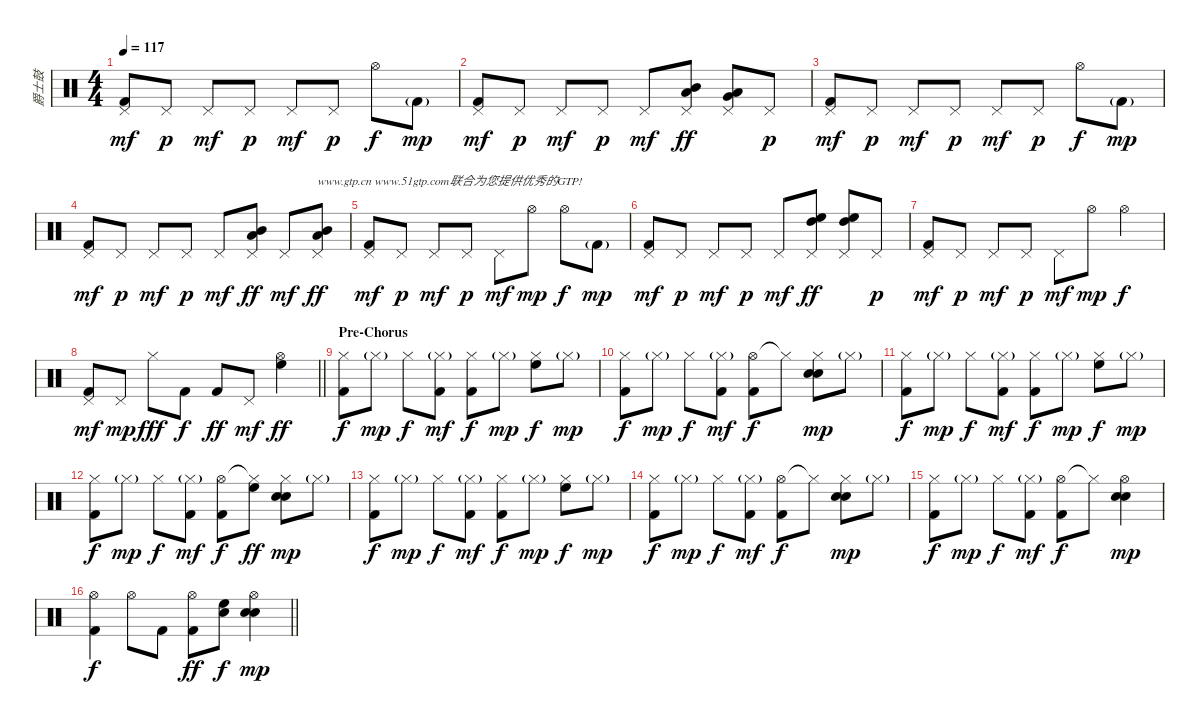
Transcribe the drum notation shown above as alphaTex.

\track ("爵士鼓" "爵士鼓") {instrument percussion}
\staff {score}
\articulation defaults
\ts (4 4)
\tempo 117
\clef neutral
\ks c
("Pedal Hi-Hat (hit)" "Kick (hit) 2").8{dy mf} "Pedal Hi-Hat (hit)".8{dy p} "Pedal Hi-Hat (hit)".8{dy mf} "Pedal Hi-Hat (hit)".8{dy p} "Pedal Hi-Hat (hit)".8{dy mf} "Pedal Hi-Hat (hit)".8{dy p} "Hi-Hat (open)".8{dy f} "Kick (hit) 2"{g}.8{dy mp} |
("Pedal Hi-Hat (hit)" "Kick (hit) 2").8{dy mf} "Pedal Hi-Hat (hit)".8{dy p} "Pedal Hi-Hat (hit)".8{dy mf} "Pedal Hi-Hat (hit)".8{dy p} "Pedal Hi-Hat (hit)".8{dy mf} ("Pedal Hi-Hat (hit)" "Mid Tom (hit)" "Low Tom (hit)").8{dy ff} ("Pedal Hi-Hat (hit)" "Low Tom (hit)" "Very Low Tom (hit)").8 "Pedal Hi-Hat (hit)".8{dy p} |
("Pedal Hi-Hat (hit)" "Kick (hit) 2").8{dy mf} "Pedal Hi-Hat (hit)".8{dy p} "Pedal Hi-Hat (hit)".8{dy mf} "Pedal Hi-Hat (hit)".8{dy p} "Pedal Hi-Hat (hit)".8{dy mf} "Pedal Hi-Hat (hit)".8{dy p} "Hi-Hat (open)".8{dy f} "Kick (hit) 2"{g}.8{dy mp} |
("Pedal Hi-Hat (hit)" "Kick (hit) 2").8{dy mf} "Pedal Hi-Hat (hit)".8{dy p} "Pedal Hi-Hat (hit)".8{dy mf} "Pedal Hi-Hat (hit)".8{dy p} "Pedal Hi-Hat (hit)".8{dy mf} ("Pedal Hi-Hat (hit)" "Mid Tom (hit)" "Low Tom (hit)").8{dy ff} "Pedal Hi-Hat (hit)".8{dy mf} ("Pedal Hi-Hat (hit)" "Mid Tom (hit)" "Low Tom (hit)").8{txt "www.gtp.cn www.51gtp.com联合为您提供优秀的GTP!" dy ff} |
("Pedal Hi-Hat (hit)" "Kick (hit) 2").8{dy mf} "Pedal Hi-Hat (hit)".8{dy p} "Pedal Hi-Hat (hit)".8{dy mf} "Pedal Hi-Hat (hit)".8{dy p} "Pedal Hi-Hat (hit)".8{dy mf} "Hi-Hat (open)".8{dy mp} "Hi-Hat (open)".8{dy f} "Kick (hit) 2"{g}.8{dy mp} |
("Pedal Hi-Hat (hit)" "Kick (hit) 2").8{dy mf} "Pedal Hi-Hat (hit)".8{dy p} "Pedal Hi-Hat (hit)".8{dy mf} "Pedal Hi-Hat (hit)".8{dy p} "Pedal Hi-Hat (hit)".8{dy mf} ("Pedal Hi-Hat (hit)" "High Tom (hit)" "High Floor Tom (hit)").8{dy ff} ("Pedal Hi-Hat (hit)" "High Tom (hit)" "High Floor Tom (hit)").8 "Pedal Hi-Hat (hit)".8{dy p} |
("Pedal Hi-Hat (hit)" "Kick (hit) 2").8{dy mf} "Pedal Hi-Hat (hit)".8{dy p} "Pedal Hi-Hat (hit)".8{dy mf} "Pedal Hi-Hat (hit)".8{dy p} "Pedal Hi-Hat (hit)".8{dy mf} "Hi-Hat (open)".8{dy mp} "Hi-Hat (open)".4{dy f} |
\barLineRight lightlight
("Pedal Hi-Hat (hit)" "Kick (hit) 2").8{dy mf} "Pedal Hi-Hat (hit)".8{dy mp} "Hi-Hat (closed)".8{dy fff} "Kick (hit) 2".8{dy f} "Kick (hit) 2".8{dy ff} "Pedal Hi-Hat (hit)".8{dy mf} ("Hi-Hat (open)" "High Floor Tom (hit)").4{dy ff} |
\section ("" "Pre-Chorus")
("Hi-Hat (closed)" "Kick (hit) 2").8{dy f} "Hi-Hat (closed)"{g}.8{dy mp} "Hi-Hat (closed)".8{dy f} ("Hi-Hat (closed)"{g} "Kick (hit) 2").8{dy mf} ("Hi-Hat (closed)" "Kick (hit) 2").8{dy f} "Hi-Hat (closed)"{g}.8{dy mp} ("Hi-Hat (closed)" "High Floor Tom (hit)").8{dy f} "Hi-Hat (closed)"{g}.8{dy mp} |
("Hi-Hat (closed)" "Kick (hit) 2").8{dy f} "Hi-Hat (closed)"{g}.8{dy mp} "Hi-Hat (closed)".8{dy f} ("Hi-Hat (closed)"{g} "Kick (hit) 2").8{dy mf} ("Hi-Hat (open)" "Kick (hit) 2").8{dy f} "Hi-Hat (closed)"{t}.8 ("Hi-Hat (closed)" "Electric Snare (hit)" "Snare (hit) 2").8{dy mp} "Hi-Hat (closed)"{g}.8 |
("Hi-Hat (closed)" "Kick (hit) 2").8{dy f} "Hi-Hat (closed)"{g}.8{dy mp} "Hi-Hat (closed)".8{dy f} ("Hi-Hat (closed)"{g} "Kick (hit) 2").8{dy mf} ("Hi-Hat (closed)" "Kick (hit) 2").8{dy f} "Hi-Hat (closed)"{g}.8{dy mp} ("Hi-Hat (closed)" "High Floor Tom (hit)").8{dy f} "Hi-Hat (closed)"{g}.8{dy mp} |
("Hi-Hat (closed)" "Kick (hit) 2").8{dy f} "Hi-Hat (closed)"{g}.8{dy mp} "Hi-Hat (closed)".8{dy f} ("Hi-Hat (closed)"{g} "Kick (hit) 2").8{dy mf} ("Hi-Hat (open)" "Kick (hit) 2").8{dy f} ("Hi-Hat (closed)"{t} "High Floor Tom (hit)").8{dy ff} ("Hi-Hat (closed)" "Electric Snare (hit)" "Snare (hit) 2").8{dy mp} "Hi-Hat (closed)"{g}.8 |
("Hi-Hat (closed)" "Kick (hit) 2").8{dy f} "Hi-Hat (closed)"{g}.8{dy mp} "Hi-Hat (closed)".8{dy f} ("Hi-Hat (closed)"{g} "Kick (hit) 2").8{dy mf} ("Hi-Hat (closed)" "Kick (hit) 2").8{dy f} "Hi-Hat (closed)"{g}.8{dy mp} ("Hi-Hat (closed)" "High Floor Tom (hit)").8{dy f} "Hi-Hat (closed)"{g}.8{dy mp} |
("Hi-Hat (closed)" "Kick (hit) 2").8{dy f} "Hi-Hat (closed)"{g}.8{dy mp} "Hi-Hat (closed)".8{dy f} ("Hi-Hat (closed)"{g} "Kick (hit) 2").8{dy mf} ("Hi-Hat (open)" "Kick (hit) 2").8{dy f} "Hi-Hat (closed)"{t}.8 ("Hi-Hat (closed)" "Electric Snare (hit)" "Snare (hit) 2").8{dy mp} "Hi-Hat (closed)"{g}.8 |
("Hi-Hat (closed)" "Kick (hit) 2").8{dy f} "Hi-Hat (closed)"{g}.8{dy mp} "Hi-Hat (closed)".8{dy f} ("Hi-Hat (closed)"{g} "Kick (hit) 2").8{dy mf} ("Hi-Hat (open)" "Kick (hit) 2").8{dy f} "Hi-Hat (closed)"{t}.8 ("Hi-Hat (open)" "Electric Snare (hit)" "Snare (hit) 2").4{dy mp} |
\barLineRight lightlight
("Hi-Hat (open)" "Kick (hit) 2").4{dy f} "Hi-Hat (open)".8 "Kick (hit) 2".8 ("Hi-Hat (open)" "Kick (hit) 2").8{dy ff} ("High Floor Tom (hit)" "Electric Snare (hit)").8{dy f} ("Hi-Hat (open)" "Electric Snare (hit)" "Snare (hit) 2").4{dy mp}
